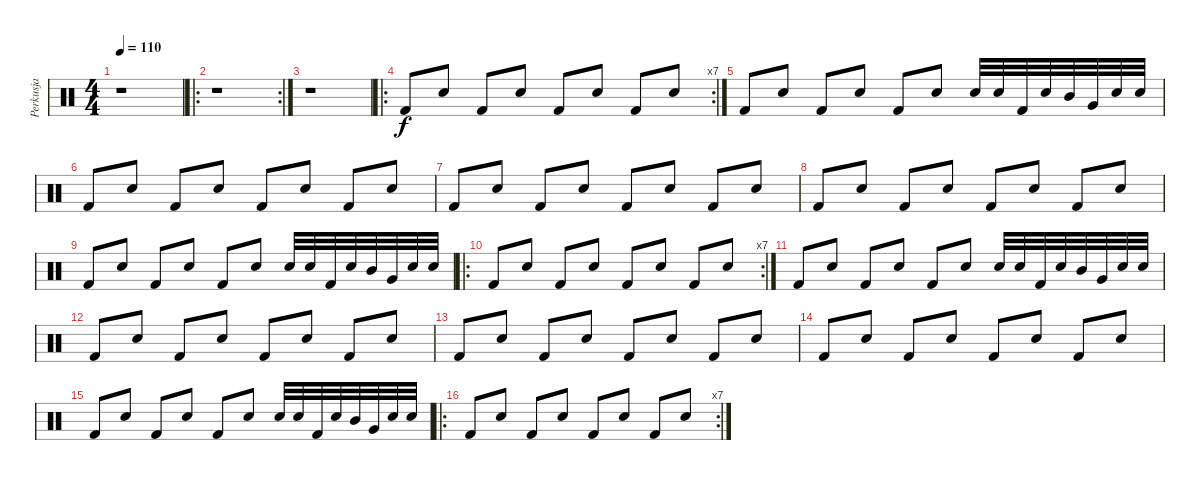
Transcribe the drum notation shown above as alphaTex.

\track ("Perkusja" "Perkusja") {instrument percussion}
\staff {score}
\articulation defaults
\ts (4 4)
\tempo 110
\clef neutral
\ks c
r.1{dy f} |
\ro
\rc 2
r.1 |
r.1 |
\ro
\rc 7 "Kick (hit) 2".8 "Snare (hit) 2".8 "Kick (hit) 2".8 "Snare (hit) 2".8 "Kick (hit) 2".8 "Snare (hit) 2".8 "Kick (hit) 2".8 "Snare (hit) 2".8
|
"Kick (hit) 2".8 "Snare (hit) 2".8 "Kick (hit) 2".8 "Snare (hit) 2".8 "Kick (hit) 2".8 "Snare (hit) 2".8 "Snare (hit) 2".32 "Snare (hit) 2".32 "Kick (hit) 2".32 "Snare (hit) 2".32 "Mid Tom (hit)".32 "Very Low Tom (hit)".32 "Snare (hit) 2".32 "Snare (hit) 2".32 |
"Kick (hit) 2".8 "Snare (hit) 2".8 "Kick (hit) 2".8 "Snare (hit) 2".8 "Kick (hit) 2".8 "Snare (hit) 2".8 "Kick (hit) 2".8 "Snare (hit) 2".8 |
"Kick (hit) 2".8 "Snare (hit) 2".8 "Kick (hit) 2".8 "Snare (hit) 2".8 "Kick (hit) 2".8 "Snare (hit) 2".8 "Kick (hit) 2".8 "Snare (hit) 2".8 |
"Kick (hit) 2".8 "Snare (hit) 2".8 "Kick (hit) 2".8 "Snare (hit) 2".8 "Kick (hit) 2".8 "Snare (hit) 2".8 "Kick (hit) 2".8 "Snare (hit) 2".8 |
"Kick (hit) 2".8 "Snare (hit) 2".8 "Kick (hit) 2".8 "Snare (hit) 2".8 "Kick (hit) 2".8 "Snare (hit) 2".8 "Snare (hit) 2".32 "Snare (hit) 2".32 "Kick (hit) 2".32 "Snare (hit) 2".32 "Mid Tom (hit)".32 "Very Low Tom (hit)".32 "Snare (hit) 2".32 "Snare (hit) 2".32 |
\ro
\rc 7 "Kick (hit) 2".8 "Snare (hit) 2".8 "Kick (hit) 2".8 "Snare (hit) 2".8 "Kick (hit) 2".8 "Snare (hit) 2".8 "Kick (hit) 2".8 "Snare (hit) 2".8
|
"Kick (hit) 2".8 "Snare (hit) 2".8 "Kick (hit) 2".8 "Snare (hit) 2".8 "Kick (hit) 2".8 "Snare (hit) 2".8 "Snare (hit) 2".32 "Snare (hit) 2".32 "Kick (hit) 2".32 "Snare (hit) 2".32 "Mid Tom (hit)".32 "Very Low Tom (hit)".32 "Snare (hit) 2".32 "Snare (hit) 2".32 |
"Kick (hit) 2".8 "Snare (hit) 2".8 "Kick (hit) 2".8 "Snare (hit) 2".8 "Kick (hit) 2".8 "Snare (hit) 2".8 "Kick (hit) 2".8 "Snare (hit) 2".8 |
"Kick (hit) 2".8 "Snare (hit) 2".8 "Kick (hit) 2".8 "Snare (hit) 2".8 "Kick (hit) 2".8 "Snare (hit) 2".8 "Kick (hit) 2".8 "Snare (hit) 2".8 |
"Kick (hit) 2".8 "Snare (hit) 2".8 "Kick (hit) 2".8 "Snare (hit) 2".8 "Kick (hit) 2".8 "Snare (hit) 2".8 "Kick (hit) 2".8 "Snare (hit) 2".8 |
"Kick (hit) 2".8 "Snare (hit) 2".8 "Kick (hit) 2".8 "Snare (hit) 2".8 "Kick (hit) 2".8 "Snare (hit) 2".8 "Snare (hit) 2".32 "Snare (hit) 2".32 "Kick (hit) 2".32 "Snare (hit) 2".32 "Mid Tom (hit)".32 "Very Low Tom (hit)".32 "Snare (hit) 2".32 "Snare (hit) 2".32 |
\ro
\rc 7 "Kick (hit) 2".8 "Snare (hit) 2".8 "Kick (hit) 2".8 "Snare (hit) 2".8 "Kick (hit) 2".8 "Snare (hit) 2".8 "Kick (hit) 2".8 "Snare (hit) 2".8
